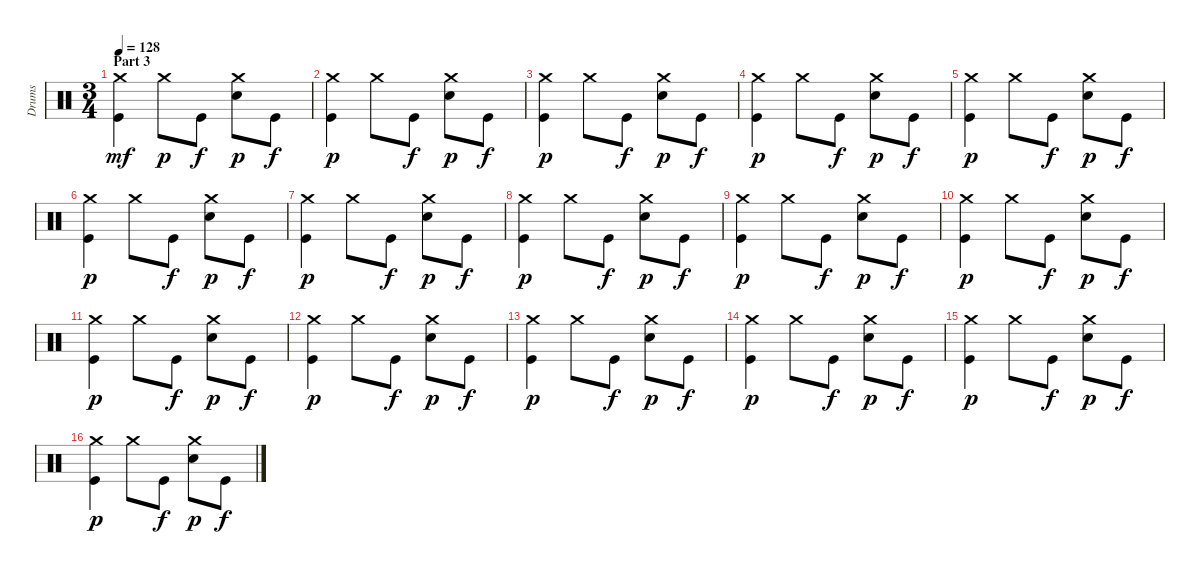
\track ("Drums" "Drums") {instrument percussion}
\staff {score}
\articulation defaults
\ts (3 4)
\section ("" "Part 3")
\tempo 128
\clef neutral
\ks c
("Crash medium (hit)" "Kick (hit)").4{dy mf} "Crash medium (hit)".8{dy p} "Kick (hit)".8{dy f} ("Crash medium (hit)" "Electric Snare (hit)").8{dy p} "Kick (hit)".8{dy f} |
("Crash medium (hit)" "Kick (hit)").4{dy p} "Crash medium (hit)".8 "Kick (hit)".8{dy f} ("Crash medium (hit)" "Electric Snare (hit)").8{dy p} "Kick (hit)".8{dy f} |
("Crash medium (hit)" "Kick (hit)").4{dy p} "Crash medium (hit)".8 "Kick (hit)".8{dy f} ("Crash medium (hit)" "Electric Snare (hit)").8{dy p} "Kick (hit)".8{dy f} |
("Crash medium (hit)" "Kick (hit)").4{dy p} "Crash medium (hit)".8 "Kick (hit)".8{dy f} ("Crash medium (hit)" "Electric Snare (hit)").8{dy p} "Kick (hit)".8{dy f} |
("Crash medium (hit)" "Kick (hit)").4{dy p} "Crash medium (hit)".8 "Kick (hit)".8{dy f} ("Crash medium (hit)" "Electric Snare (hit)").8{dy p} "Kick (hit)".8{dy f} |
("Crash medium (hit)" "Kick (hit)").4{dy p} "Crash medium (hit)".8 "Kick (hit)".8{dy f} ("Crash medium (hit)" "Electric Snare (hit)").8{dy p} "Kick (hit)".8{dy f} |
("Crash medium (hit)" "Kick (hit)").4{dy p} "Crash medium (hit)".8 "Kick (hit)".8{dy f} ("Crash medium (hit)" "Electric Snare (hit)").8{dy p} "Kick (hit)".8{dy f} |
("Crash medium (hit)" "Kick (hit)").4{dy p} "Crash medium (hit)".8 "Kick (hit)".8{dy f} ("Crash medium (hit)" "Electric Snare (hit)").8{dy p} "Kick (hit)".8{dy f} |
("Crash medium (hit)" "Kick (hit)").4{dy p} "Crash medium (hit)".8 "Kick (hit)".8{dy f} ("Crash medium (hit)" "Electric Snare (hit)").8{dy p} "Kick (hit)".8{dy f} |
("Crash medium (hit)" "Kick (hit)").4{dy p} "Crash medium (hit)".8 "Kick (hit)".8{dy f} ("Crash medium (hit)" "Electric Snare (hit)").8{dy p} "Kick (hit)".8{dy f} |
("Crash medium (hit)" "Kick (hit)").4{dy p} "Crash medium (hit)".8 "Kick (hit)".8{dy f} ("Crash medium (hit)" "Electric Snare (hit)").8{dy p} "Kick (hit)".8{dy f} |
("Crash medium (hit)" "Kick (hit)").4{dy p} "Crash medium (hit)".8 "Kick (hit)".8{dy f} ("Crash medium (hit)" "Electric Snare (hit)").8{dy p} "Kick (hit)".8{dy f} |
("Crash medium (hit)" "Kick (hit)").4{dy p} "Crash medium (hit)".8 "Kick (hit)".8{dy f} ("Crash medium (hit)" "Electric Snare (hit)").8{dy p} "Kick (hit)".8{dy f} |
("Crash medium (hit)" "Kick (hit)").4{dy p} "Crash medium (hit)".8 "Kick (hit)".8{dy f} ("Crash medium (hit)" "Electric Snare (hit)").8{dy p} "Kick (hit)".8{dy f} |
("Crash medium (hit)" "Kick (hit)").4{dy p} "Crash medium (hit)".8 "Kick (hit)".8{dy f} ("Crash medium (hit)" "Electric Snare (hit)").8{dy p} "Kick (hit)".8{dy f} |
("Crash medium (hit)" "Kick (hit)").4{dy p} "Crash medium (hit)".8 "Kick (hit)".8{dy f} ("Crash medium (hit)" "Electric Snare (hit)").8{dy p} "Kick (hit)".8{dy f}
